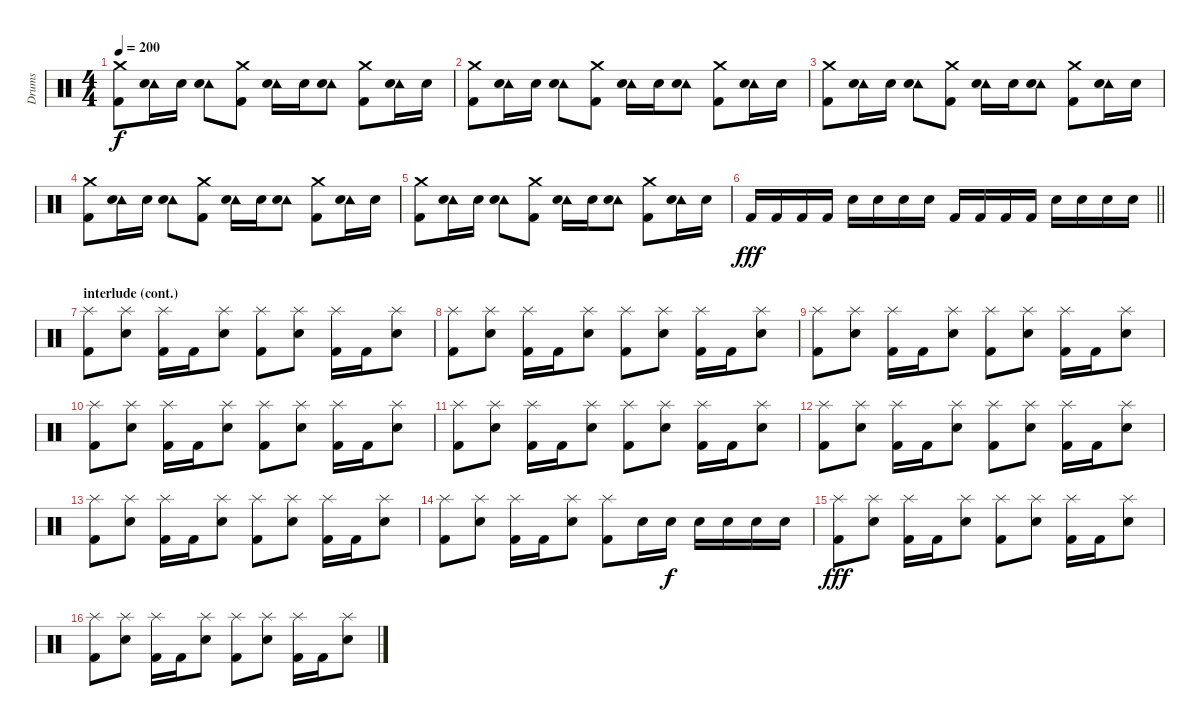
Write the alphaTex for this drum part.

\track ("Drums" "Drums") {instrument percussion}
\staff {score}
\articulation defaults
\ts (4 4)
\tempo 200
\clef neutral
\ks c
("Crash medium (hit)" "Kick (hit) 2").8{dy f} ("Tambourine (hit)" "Electric Snare (hit)").16 "Electric Snare (hit)".16 ("Tambourine (hit)" "Electric Snare (hit)").8 ("Crash medium (hit)" "Kick (hit) 2").8 ("Tambourine (hit)" "Electric Snare (hit)").16 "Electric Snare (hit)".16 ("Tambourine (hit)" "Electric Snare (hit)").8 ("Crash medium (hit)" "Kick (hit) 2").8 ("Tambourine (hit)" "Electric Snare (hit)").16 "Electric Snare (hit)".16 |
("Crash medium (hit)" "Kick (hit) 2").8 ("Tambourine (hit)" "Electric Snare (hit)").16 "Electric Snare (hit)".16 ("Tambourine (hit)" "Electric Snare (hit)").8 ("Crash medium (hit)" "Kick (hit) 2").8 ("Tambourine (hit)" "Electric Snare (hit)").16 "Electric Snare (hit)".16 ("Tambourine (hit)" "Electric Snare (hit)").8 ("Crash medium (hit)" "Kick (hit) 2").8 ("Tambourine (hit)" "Electric Snare (hit)").16 "Electric Snare (hit)".16 |
("Crash medium (hit)" "Kick (hit) 2").8 ("Tambourine (hit)" "Electric Snare (hit)").16 "Electric Snare (hit)".16 ("Tambourine (hit)" "Electric Snare (hit)").8 ("Crash medium (hit)" "Kick (hit) 2").8 ("Tambourine (hit)" "Electric Snare (hit)").16 "Electric Snare (hit)".16 ("Tambourine (hit)" "Electric Snare (hit)").8 ("Crash medium (hit)" "Kick (hit) 2").8 ("Tambourine (hit)" "Electric Snare (hit)").16 "Electric Snare (hit)".16 |
("Crash medium (hit)" "Kick (hit) 2").8 ("Tambourine (hit)" "Electric Snare (hit)").16 "Electric Snare (hit)".16 ("Tambourine (hit)" "Electric Snare (hit)").8 ("Crash medium (hit)" "Kick (hit) 2").8 ("Tambourine (hit)" "Electric Snare (hit)").16 "Electric Snare (hit)".16 ("Tambourine (hit)" "Electric Snare (hit)").8 ("Crash medium (hit)" "Kick (hit) 2").8 ("Tambourine (hit)" "Electric Snare (hit)").16 "Electric Snare (hit)".16 |
("Crash medium (hit)" "Kick (hit) 2").8 ("Tambourine (hit)" "Electric Snare (hit)").16 "Electric Snare (hit)".16 ("Tambourine (hit)" "Electric Snare (hit)").8 ("Crash medium (hit)" "Kick (hit) 2").8 ("Tambourine (hit)" "Electric Snare (hit)").16 "Electric Snare (hit)".16 ("Tambourine (hit)" "Electric Snare (hit)").8 ("Crash medium (hit)" "Kick (hit) 2").8 ("Tambourine (hit)" "Electric Snare (hit)").16 "Electric Snare (hit)".16 |
\barLineRight lightlight "Kick (hit) 2".16{dy fff} "Kick (hit) 2".16 "Kick (hit) 2".16 "Kick (hit) 2".16 "Electric Snare (hit)".16 "Electric Snare (hit)".16 "Electric Snare (hit)".16 "Electric Snare (hit)".16 "Kick (hit) 2".16 "Kick (hit) 2".16 "Kick (hit) 2".16 "Kick (hit) 2".16 "Electric Snare (hit)".16 "Electric Snare (hit)".16 "Electric Snare (hit)".16 "Electric Snare (hit)".16
|
\section ("" "interlude (cont.)")
("Splash (hit)" "Kick (hit) 2").8 ("Splash (hit)" "Electric Snare (hit)").8 ("Splash (hit)" "Kick (hit) 2").16 "Kick (hit) 2".16 ("Splash (hit)" "Electric Snare (hit)").8 ("Splash (hit)" "Kick (hit) 2").8 ("Splash (hit)" "Electric Snare (hit)").8 ("Splash (hit)" "Kick (hit) 2").16 "Kick (hit) 2".16 ("Splash (hit)" "Electric Snare (hit)").8 |
("Splash (hit)" "Kick (hit) 2").8 ("Splash (hit)" "Electric Snare (hit)").8 ("Splash (hit)" "Kick (hit) 2").16 "Kick (hit) 2".16 ("Splash (hit)" "Electric Snare (hit)").8 ("Splash (hit)" "Kick (hit) 2").8 ("Splash (hit)" "Electric Snare (hit)").8 ("Splash (hit)" "Kick (hit) 2").16 "Kick (hit) 2".16 ("Splash (hit)" "Electric Snare (hit)").8 |
("Splash (hit)" "Kick (hit) 2").8 ("Splash (hit)" "Electric Snare (hit)").8 ("Splash (hit)" "Kick (hit) 2").16 "Kick (hit) 2".16 ("Splash (hit)" "Electric Snare (hit)").8 ("Splash (hit)" "Kick (hit) 2").8 ("Splash (hit)" "Electric Snare (hit)").8 ("Splash (hit)" "Kick (hit) 2").16 "Kick (hit) 2".16 ("Splash (hit)" "Electric Snare (hit)").8 |
("Splash (hit)" "Kick (hit) 2").8 ("Splash (hit)" "Electric Snare (hit)").8 ("Splash (hit)" "Kick (hit) 2").16 "Kick (hit) 2".16 ("Splash (hit)" "Electric Snare (hit)").8 ("Splash (hit)" "Kick (hit) 2").8 ("Splash (hit)" "Electric Snare (hit)").8 ("Splash (hit)" "Kick (hit) 2").16 "Kick (hit) 2".16 ("Splash (hit)" "Electric Snare (hit)").8 |
("Splash (hit)" "Kick (hit) 2").8 ("Splash (hit)" "Electric Snare (hit)").8 ("Splash (hit)" "Kick (hit) 2").16 "Kick (hit) 2".16 ("Splash (hit)" "Electric Snare (hit)").8 ("Splash (hit)" "Kick (hit) 2").8 ("Splash (hit)" "Electric Snare (hit)").8 ("Splash (hit)" "Kick (hit) 2").16 "Kick (hit) 2".16 ("Splash (hit)" "Electric Snare (hit)").8 |
("Splash (hit)" "Kick (hit) 2").8 ("Splash (hit)" "Electric Snare (hit)").8 ("Splash (hit)" "Kick (hit) 2").16 "Kick (hit) 2".16 ("Splash (hit)" "Electric Snare (hit)").8 ("Splash (hit)" "Kick (hit) 2").8 ("Splash (hit)" "Electric Snare (hit)").8 ("Splash (hit)" "Kick (hit) 2").16 "Kick (hit) 2".16 ("Splash (hit)" "Electric Snare (hit)").8 |
("Splash (hit)" "Kick (hit) 2").8 ("Splash (hit)" "Electric Snare (hit)").8 ("Splash (hit)" "Kick (hit) 2").16 "Kick (hit) 2".16 ("Splash (hit)" "Electric Snare (hit)").8 ("Splash (hit)" "Kick (hit) 2").8 ("Splash (hit)" "Electric Snare (hit)").8 ("Splash (hit)" "Kick (hit) 2").16 "Kick (hit) 2".16 ("Splash (hit)" "Electric Snare (hit)").8 |
("Splash (hit)" "Kick (hit) 2").8 ("Splash (hit)" "Electric Snare (hit)").8 ("Splash (hit)" "Kick (hit) 2").16 "Kick (hit) 2".16 ("Splash (hit)" "Electric Snare (hit)").8 ("Splash (hit)" "Kick (hit) 2").8 "Electric Snare (hit)".16 "Electric Snare (hit)".16{dy f} "Electric Snare (hit)".16 "Electric Snare (hit)".16 "Electric Snare (hit)".16 "Electric Snare (hit)".16 |
("Splash (hit)" "Kick (hit) 2").8{dy fff} ("Splash (hit)" "Electric Snare (hit)").8 ("Splash (hit)" "Kick (hit) 2").16 "Kick (hit) 2".16 ("Splash (hit)" "Electric Snare (hit)").8 ("Splash (hit)" "Kick (hit) 2").8 ("Splash (hit)" "Electric Snare (hit)").8 ("Splash (hit)" "Kick (hit) 2").16 "Kick (hit) 2".16 ("Splash (hit)" "Electric Snare (hit)").8 |
("Splash (hit)" "Kick (hit) 2").8 ("Splash (hit)" "Electric Snare (hit)").8 ("Splash (hit)" "Kick (hit) 2").16 "Kick (hit) 2".16 ("Splash (hit)" "Electric Snare (hit)").8 ("Splash (hit)" "Kick (hit) 2").8 ("Splash (hit)" "Electric Snare (hit)").8 ("Splash (hit)" "Kick (hit) 2").16 "Kick (hit) 2".16 ("Splash (hit)" "Electric Snare (hit)").8
